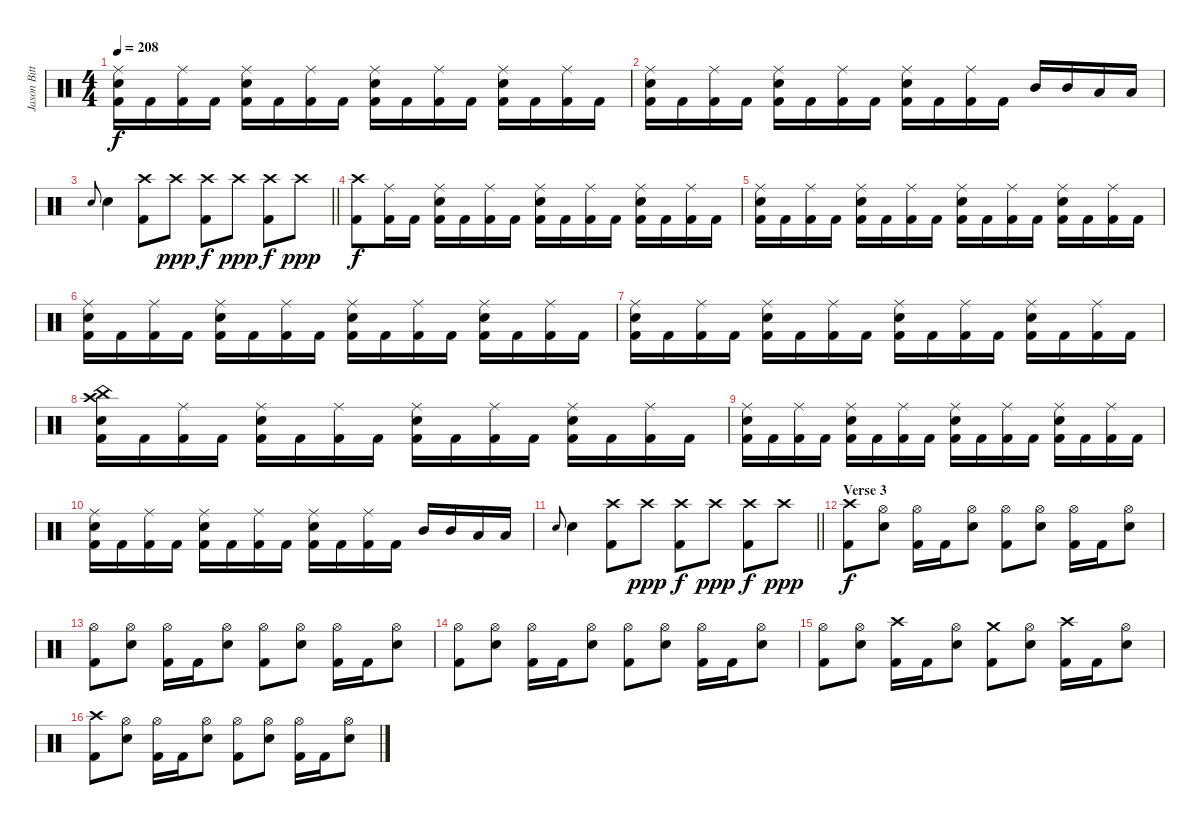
\track ("Jason Bittner" "Jason Bitt") {instrument percussion}
\staff {score}
\articulation defaults
\ts (4 4)
\tempo 208
\clef neutral
\ks c
("Ride (middle)" "Electric Snare (hit)" "Kick (hit) 2").16{dy f} "Kick (hit) 2".16 ("Ride (middle)" "Kick (hit) 2").16 "Kick (hit) 2".16 ("Ride (middle)" "Electric Snare (hit)" "Kick (hit) 2").16 "Kick (hit) 2".16 ("Ride (middle)" "Kick (hit) 2").16 "Kick (hit) 2".16 ("Ride (middle)" "Electric Snare (hit)" "Kick (hit) 2").16 "Kick (hit) 2".16 ("Ride (middle)" "Kick (hit) 2").16 "Kick (hit) 2".16 ("Ride (middle)" "Electric Snare (hit)" "Kick (hit) 2").16 "Kick (hit) 2".16 ("Ride (middle)" "Kick (hit) 2").16 "Kick (hit) 2".16 |
("Ride (middle)" "Electric Snare (hit)" "Kick (hit) 2").16 "Kick (hit) 2".16 ("Ride (middle)" "Kick (hit) 2").16 "Kick (hit) 2".16 ("Ride (middle)" "Electric Snare (hit)" "Kick (hit) 2").16 "Kick (hit) 2".16 ("Ride (middle)" "Kick (hit) 2").16 "Kick (hit) 2".16 ("Ride (middle)" "Electric Snare (hit)" "Kick (hit) 2").16 "Kick (hit) 2".16 ("Ride (middle)" "Kick (hit) 2").16 "Kick (hit) 2".16 "Mid Tom (hit)".16 "Mid Tom (hit)".16 "Low Tom (hit)".16 "Low Tom (hit)".16 |
\barLineRight lightlight "Electric Snare (hit)".8{gr onbeat} "Electric Snare (hit)".4
("Crash high (hit)" "Kick (hit) 2").8 "Crash high (hit)".8{dy ppp} ("Crash high (hit)" "Kick (hit) 2").8{dy f} "Crash high (hit)".8{dy ppp} ("Crash high (hit)" "Kick (hit) 2").8{dy f} "Crash high (hit)".8{dy ppp} |
("Crash high (hit)" "Kick (hit) 2").8{dy f} ("Ride (middle)" "Kick (hit) 2").16 "Kick (hit) 2".16 ("Ride (middle)" "Electric Snare (hit)" "Kick (hit) 2").16 "Kick (hit) 2".16 ("Ride (middle)" "Kick (hit) 2").16 "Kick (hit) 2".16 ("Ride (middle)" "Electric Snare (hit)" "Kick (hit) 2").16 "Kick (hit) 2".16 ("Ride (middle)" "Kick (hit) 2").16 "Kick (hit) 2".16 ("Ride (middle)" "Electric Snare (hit)" "Kick (hit) 2").16 "Kick (hit) 2".16 ("Ride (middle)" "Kick (hit) 2").16 "Kick (hit) 2".16 |
("Ride (middle)" "Electric Snare (hit)" "Kick (hit) 2").16 "Kick (hit) 2".16 ("Ride (middle)" "Kick (hit) 2").16 "Kick (hit) 2".16 ("Ride (middle)" "Electric Snare (hit)" "Kick (hit) 2").16 "Kick (hit) 2".16 ("Ride (middle)" "Kick (hit) 2").16 "Kick (hit) 2".16 ("Ride (middle)" "Electric Snare (hit)" "Kick (hit) 2").16 "Kick (hit) 2".16 ("Ride (middle)" "Kick (hit) 2").16 "Kick (hit) 2".16 ("Ride (middle)" "Electric Snare (hit)" "Kick (hit) 2").16 "Kick (hit) 2".16 ("Ride (middle)" "Kick (hit) 2").16 "Kick (hit) 2".16 |
("Ride (middle)" "Electric Snare (hit)" "Kick (hit) 2").16 "Kick (hit) 2".16 ("Ride (middle)" "Kick (hit) 2").16 "Kick (hit) 2".16 ("Ride (middle)" "Electric Snare (hit)" "Kick (hit) 2").16 "Kick (hit) 2".16 ("Ride (middle)" "Kick (hit) 2").16 "Kick (hit) 2".16 ("Ride (middle)" "Electric Snare (hit)" "Kick (hit) 2").16 "Kick (hit) 2".16 ("Ride (middle)" "Kick (hit) 2").16 "Kick (hit) 2".16 ("Ride (middle)" "Electric Snare (hit)" "Kick (hit) 2").16 "Kick (hit) 2".16 ("Ride (middle)" "Kick (hit) 2").16 "Kick (hit) 2".16 |
("Ride (middle)" "Electric Snare (hit)" "Kick (hit) 2").16 "Kick (hit) 2".16 ("Ride (middle)" "Kick (hit) 2").16 "Kick (hit) 2".16 ("Ride (middle)" "Electric Snare (hit)" "Kick (hit) 2").16 "Kick (hit) 2".16 ("Ride (middle)" "Kick (hit) 2").16 "Kick (hit) 2".16 ("Ride (middle)" "Electric Snare (hit)" "Kick (hit) 2").16 "Kick (hit) 2".16 ("Ride (middle)" "Kick (hit) 2").16 "Kick (hit) 2".16 ("Ride (middle)" "Electric Snare (hit)" "Kick (hit) 2").16 "Kick (hit) 2".16 ("Ride (middle)" "Kick (hit) 2").16 "Kick (hit) 2".16 |
("China (hit)" "Crash high (hit)" "Electric Snare (hit)" "Kick (hit) 2").16 "Kick (hit) 2".16 ("Ride (middle)" "Kick (hit) 2").16 "Kick (hit) 2".16 ("Ride (middle)" "Electric Snare (hit)" "Kick (hit) 2").16 "Kick (hit) 2".16 ("Ride (middle)" "Kick (hit) 2").16 "Kick (hit) 2".16 ("Ride (middle)" "Electric Snare (hit)" "Kick (hit) 2").16 "Kick (hit) 2".16 ("Ride (middle)" "Kick (hit) 2").16 "Kick (hit) 2".16 ("Ride (middle)" "Electric Snare (hit)" "Kick (hit) 2").16 "Kick (hit) 2".16 ("Ride (middle)" "Kick (hit) 2").16 "Kick (hit) 2".16 |
("Ride (middle)" "Electric Snare (hit)" "Kick (hit) 2").16 "Kick (hit) 2".16 ("Ride (middle)" "Kick (hit) 2").16 "Kick (hit) 2".16 ("Ride (middle)" "Electric Snare (hit)" "Kick (hit) 2").16 "Kick (hit) 2".16 ("Ride (middle)" "Kick (hit) 2").16 "Kick (hit) 2".16 ("Ride (middle)" "Electric Snare (hit)" "Kick (hit) 2").16 "Kick (hit) 2".16 ("Ride (middle)" "Kick (hit) 2").16 "Kick (hit) 2".16 ("Ride (middle)" "Electric Snare (hit)" "Kick (hit) 2").16 "Kick (hit) 2".16 ("Ride (middle)" "Kick (hit) 2").16 "Kick (hit) 2".16 |
("Ride (middle)" "Electric Snare (hit)" "Kick (hit) 2").16 "Kick (hit) 2".16 ("Ride (middle)" "Kick (hit) 2").16 "Kick (hit) 2".16 ("Ride (middle)" "Electric Snare (hit)" "Kick (hit) 2").16 "Kick (hit) 2".16 ("Ride (middle)" "Kick (hit) 2").16 "Kick (hit) 2".16 ("Ride (middle)" "Electric Snare (hit)" "Kick (hit) 2").16 "Kick (hit) 2".16 ("Ride (middle)" "Kick (hit) 2").16 "Kick (hit) 2".16 "Mid Tom (hit)".16 "Mid Tom (hit)".16 "Low Tom (hit)".16 "Low Tom (hit)".16 |
\barLineRight lightlight "Electric Snare (hit)".8{gr onbeat} "Electric Snare (hit)".4
("Crash high (hit)" "Kick (hit) 2").8 "Crash high (hit)".8{dy ppp} ("Crash high (hit)" "Kick (hit) 2").8{dy f} "Crash high (hit)".8{dy ppp} ("Crash high (hit)" "Kick (hit) 2").8{dy f} "Crash high (hit)".8{dy ppp} |
\section ("" "Verse 3")
("Crash high (hit)" "Kick (hit) 2").8{dy f} ("Hi-Hat (open)" "Electric Snare (hit)").8 ("Hi-Hat (open)" "Kick (hit) 2").16 "Kick (hit) 2".16 ("Hi-Hat (open)" "Electric Snare (hit)").8 ("Hi-Hat (open)" "Kick (hit) 2").8 ("Hi-Hat (open)" "Electric Snare (hit)").8 ("Hi-Hat (open)" "Kick (hit) 2").16 "Kick (hit) 2".16 ("Hi-Hat (open)" "Electric Snare (hit)").8 |
("Hi-Hat (open)" "Kick (hit) 2").8 ("Hi-Hat (open)" "Electric Snare (hit)").8 ("Hi-Hat (open)" "Kick (hit) 2").16 "Kick (hit) 2".16 ("Hi-Hat (open)" "Electric Snare (hit)").8 ("Hi-Hat (open)" "Kick (hit) 2").8 ("Hi-Hat (open)" "Electric Snare (hit)").8 ("Hi-Hat (open)" "Kick (hit) 2").16 "Kick (hit) 2".16 ("Hi-Hat (open)" "Electric Snare (hit)").8 |
("Hi-Hat (open)" "Kick (hit) 2").8 ("Hi-Hat (open)" "Electric Snare (hit)").8 ("Hi-Hat (open)" "Kick (hit) 2").16 "Kick (hit) 2".16 ("Hi-Hat (open)" "Electric Snare (hit)").8 ("Hi-Hat (open)" "Kick (hit) 2").8 ("Hi-Hat (open)" "Electric Snare (hit)").8 ("Hi-Hat (open)" "Kick (hit) 2").16 "Kick (hit) 2".16 ("Hi-Hat (open)" "Electric Snare (hit)").8 |
("Hi-Hat (open)" "Kick (hit) 2").8 ("Hi-Hat (open)" "Electric Snare (hit)").8 ("Crash high (hit)" "Kick (hit) 2").16 "Kick (hit) 2".16 ("Hi-Hat (open)" "Electric Snare (hit)").8 ("Crash medium (hit)" "Kick (hit) 2").8 ("Hi-Hat (open)" "Electric Snare (hit)").8 ("Crash high (hit)" "Kick (hit) 2").16 "Kick (hit) 2".16 ("Hi-Hat (open)" "Electric Snare (hit)").8 |
("Crash high (hit)" "Kick (hit) 2").8 ("Hi-Hat (open)" "Electric Snare (hit)").8 ("Hi-Hat (open)" "Kick (hit) 2").16 "Kick (hit) 2".16 ("Hi-Hat (open)" "Electric Snare (hit)").8 ("Hi-Hat (open)" "Kick (hit) 2").8 ("Hi-Hat (open)" "Electric Snare (hit)").8 ("Hi-Hat (open)" "Kick (hit) 2").16 "Kick (hit) 2".16 ("Hi-Hat (open)" "Electric Snare (hit)").8
